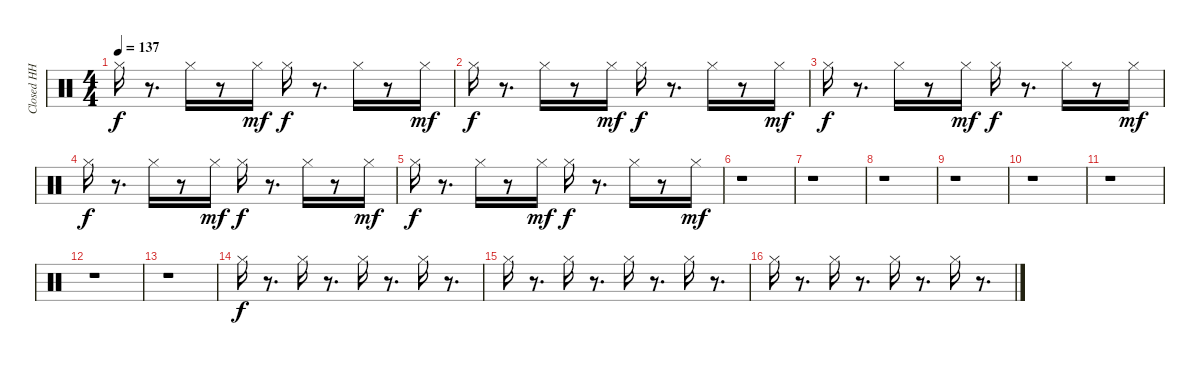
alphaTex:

\track ("Closed HH" "Closed HH") {instrument percussion}
\staff {score}
\articulation defaults
\ts (4 4)
\tempo 137
\clef neutral
\ks c "Hi-Hat (closed)".16{dy f}
r.8{d} "Hi-Hat (closed)".16 r.8 "Hi-Hat (closed)".16{dy mf} "Hi-Hat (closed)".16{dy f} r.8{d} "Hi-Hat (closed)".16 r.8 "Hi-Hat (closed)".16{dy mf} |
"Hi-Hat (closed)".16{dy f} r.8{d} "Hi-Hat (closed)".16 r.8 "Hi-Hat (closed)".16{dy mf} "Hi-Hat (closed)".16{dy f} r.8{d} "Hi-Hat (closed)".16 r.8 "Hi-Hat (closed)".16{dy mf} |
"Hi-Hat (closed)".16{dy f} r.8{d} "Hi-Hat (closed)".16 r.8 "Hi-Hat (closed)".16{dy mf} "Hi-Hat (closed)".16{dy f} r.8{d} "Hi-Hat (closed)".16 r.8 "Hi-Hat (closed)".16{dy mf} |
"Hi-Hat (closed)".16{dy f} r.8{d} "Hi-Hat (closed)".16 r.8 "Hi-Hat (closed)".16{dy mf} "Hi-Hat (closed)".16{dy f} r.8{d} "Hi-Hat (closed)".16 r.8 "Hi-Hat (closed)".16{dy mf} |
"Hi-Hat (closed)".16{dy f} r.8{d} "Hi-Hat (closed)".16 r.8 "Hi-Hat (closed)".16{dy mf} "Hi-Hat (closed)".16{dy f} r.8{d} "Hi-Hat (closed)".16 r.8 "Hi-Hat (closed)".16{dy mf} |
r.1 |
r.1 |
r.1 |
r.1 |
r.1 |
r.1 |
r.1 |
r.1 |
"Hi-Hat (closed)".16{dy f} r.8{d} "Hi-Hat (closed)".16 r.8{d} "Hi-Hat (closed)".16 r.8{d} "Hi-Hat (closed)".16 r.8{d} |
"Hi-Hat (closed)".16 r.8{d} "Hi-Hat (closed)".16 r.8{d} "Hi-Hat (closed)".16 r.8{d} "Hi-Hat (closed)".16 r.8{d} |
"Hi-Hat (closed)".16 r.8{d} "Hi-Hat (closed)".16 r.8{d} "Hi-Hat (closed)".16 r.8{d} "Hi-Hat (closed)".16 r.8{d}
